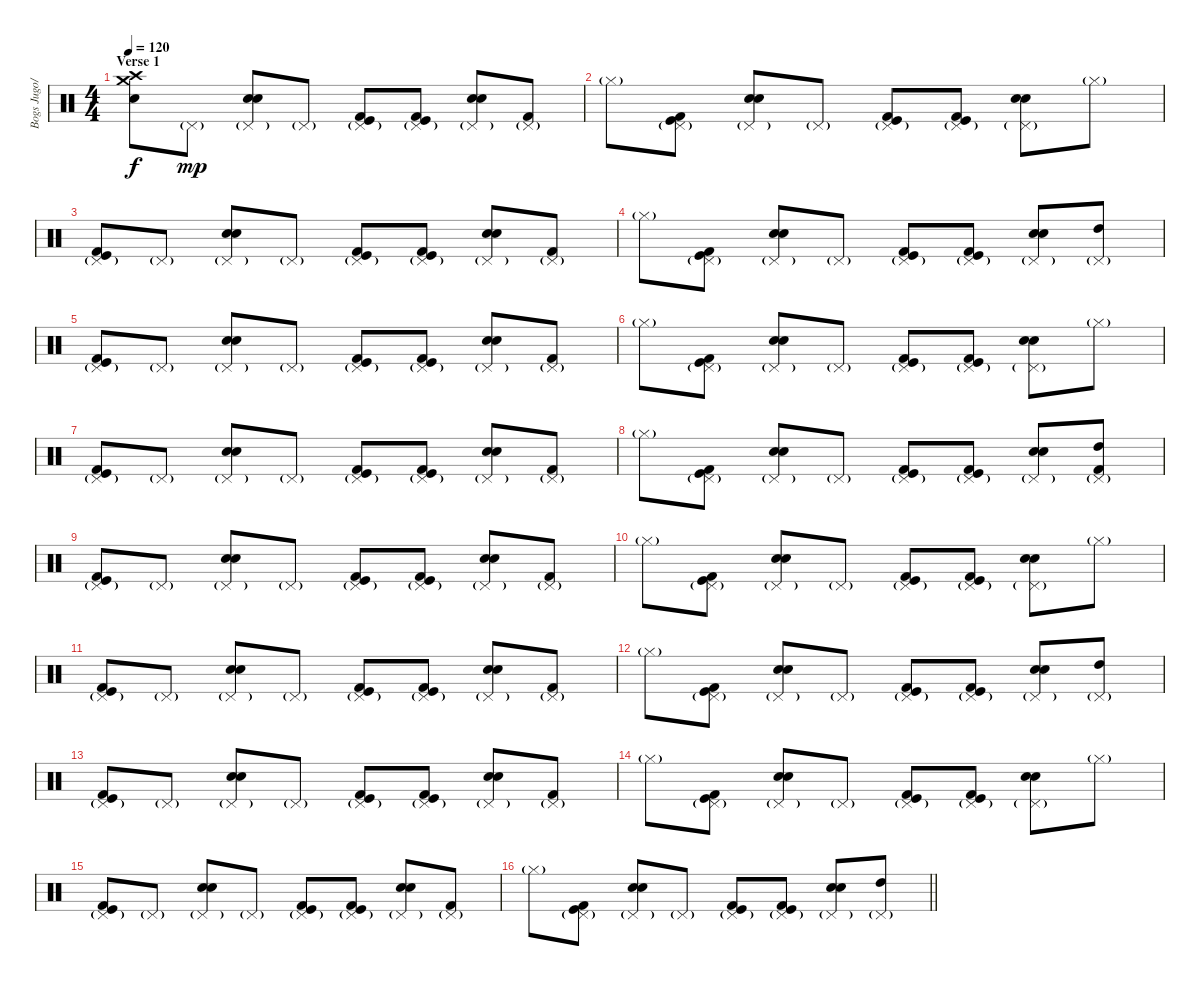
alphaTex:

\track ("Bogs Jugo/Drums" "Bogs Jugo/") {instrument percussion}
\staff {score}
\articulation defaults
\ts (4 4)
\section ("" "Verse 1")
\tempo 120
\clef neutral
\ks c
("Crash medium (hit)" "Crash high (hit)" "Electric Snare (hit)").8{dy f} "Pedal Hi-Hat (hit)"{g}.8{dy mp} ("Pedal Hi-Hat (hit)"{g} "Electric Snare (hit)" "Snare (hit) 2").8 "Pedal Hi-Hat (hit)"{g}.8 ("Pedal Hi-Hat (hit)"{g} "Kick (hit) 2" "Kick (hit)").8 ("Pedal Hi-Hat (hit)"{g} "Kick (hit) 2" "Kick (hit)").8 ("Pedal Hi-Hat (hit)"{g} "Electric Snare (hit)" "Snare (hit) 2").8 ("Pedal Hi-Hat (hit)"{g} "Kick (hit) 2").8 |
"Hi-Hat (closed)"{g}.8 ("Pedal Hi-Hat (hit)"{g} "Kick (hit) 2" "Kick (hit)").8 ("Pedal Hi-Hat (hit)"{g} "Electric Snare (hit)" "Snare (hit) 2").8 "Pedal Hi-Hat (hit)"{g}.8 ("Pedal Hi-Hat (hit)"{g} "Kick (hit) 2" "Kick (hit)").8 ("Pedal Hi-Hat (hit)"{g} "Kick (hit) 2" "Kick (hit)").8 ("Pedal Hi-Hat (hit)"{g} "Electric Snare (hit)" "Snare (hit) 2").8 "Hi-Hat (closed)"{g}.8 |
("Pedal Hi-Hat (hit)"{g} "Kick (hit) 2" "Kick (hit)").8 "Pedal Hi-Hat (hit)"{g}.8 ("Pedal Hi-Hat (hit)"{g} "Electric Snare (hit)" "Snare (hit) 2").8 "Pedal Hi-Hat (hit)"{g}.8 ("Pedal Hi-Hat (hit)"{g} "Kick (hit) 2" "Kick (hit)").8 ("Pedal Hi-Hat (hit)"{g} "Kick (hit) 2" "Kick (hit)").8 ("Pedal Hi-Hat (hit)"{g} "Electric Snare (hit)" "Snare (hit) 2").8 ("Pedal Hi-Hat (hit)"{g} "Kick (hit) 2").8 |
"Hi-Hat (closed)"{g}.8 ("Pedal Hi-Hat (hit)"{g} "Kick (hit) 2" "Kick (hit)").8 ("Pedal Hi-Hat (hit)"{g} "Electric Snare (hit)" "Snare (hit) 2").8 "Pedal Hi-Hat (hit)"{g}.8 ("Pedal Hi-Hat (hit)"{g} "Kick (hit) 2" "Kick (hit)").8 ("Pedal Hi-Hat (hit)"{g} "Kick (hit) 2" "Kick (hit)").8 ("Pedal Hi-Hat (hit)"{g} "Electric Snare (hit)" "Snare (hit) 2").8 ("Pedal Hi-Hat (hit)"{g} "High Tom (hit)").8 |
("Pedal Hi-Hat (hit)"{g} "Kick (hit) 2" "Kick (hit)").8 "Pedal Hi-Hat (hit)"{g}.8 ("Pedal Hi-Hat (hit)"{g} "Electric Snare (hit)" "Snare (hit) 2").8 "Pedal Hi-Hat (hit)"{g}.8 ("Pedal Hi-Hat (hit)"{g} "Kick (hit) 2" "Kick (hit)").8 ("Pedal Hi-Hat (hit)"{g} "Kick (hit) 2" "Kick (hit)").8 ("Pedal Hi-Hat (hit)"{g} "Electric Snare (hit)" "Snare (hit) 2").8 ("Pedal Hi-Hat (hit)"{g} "Kick (hit) 2").8 |
"Hi-Hat (closed)"{g}.8 ("Pedal Hi-Hat (hit)"{g} "Kick (hit) 2" "Kick (hit)").8 ("Pedal Hi-Hat (hit)"{g} "Electric Snare (hit)" "Snare (hit) 2").8 "Pedal Hi-Hat (hit)"{g}.8 ("Pedal Hi-Hat (hit)"{g} "Kick (hit) 2" "Kick (hit)").8 ("Pedal Hi-Hat (hit)"{g} "Kick (hit) 2" "Kick (hit)").8 ("Pedal Hi-Hat (hit)"{g} "Electric Snare (hit)" "Snare (hit) 2").8 "Hi-Hat (closed)"{g}.8 |
("Pedal Hi-Hat (hit)"{g} "Kick (hit) 2" "Kick (hit)").8 "Pedal Hi-Hat (hit)"{g}.8 ("Pedal Hi-Hat (hit)"{g} "Electric Snare (hit)" "Snare (hit) 2").8 "Pedal Hi-Hat (hit)"{g}.8 ("Pedal Hi-Hat (hit)"{g} "Kick (hit) 2" "Kick (hit)").8 ("Pedal Hi-Hat (hit)"{g} "Kick (hit) 2" "Kick (hit)").8 ("Pedal Hi-Hat (hit)"{g} "Electric Snare (hit)" "Snare (hit) 2").8 ("Pedal Hi-Hat (hit)"{g} "Kick (hit) 2").8 |
"Hi-Hat (closed)"{g}.8 ("Pedal Hi-Hat (hit)"{g} "Kick (hit) 2" "Kick (hit)").8 ("Pedal Hi-Hat (hit)"{g} "Electric Snare (hit)" "Snare (hit) 2").8 "Pedal Hi-Hat (hit)"{g}.8 ("Pedal Hi-Hat (hit)"{g} "Kick (hit) 2" "Kick (hit)").8 ("Pedal Hi-Hat (hit)"{g} "Kick (hit) 2" "Kick (hit)").8 ("Pedal Hi-Hat (hit)"{g} "Electric Snare (hit)" "Snare (hit) 2").8 ("Pedal Hi-Hat (hit)"{g} "High Tom (hit)" "Kick (hit) 2").8 |
("Pedal Hi-Hat (hit)"{g} "Kick (hit) 2" "Kick (hit)").8 "Pedal Hi-Hat (hit)"{g}.8 ("Pedal Hi-Hat (hit)"{g} "Electric Snare (hit)" "Snare (hit) 2").8 "Pedal Hi-Hat (hit)"{g}.8 ("Pedal Hi-Hat (hit)"{g} "Kick (hit) 2" "Kick (hit)").8 ("Pedal Hi-Hat (hit)"{g} "Kick (hit) 2" "Kick (hit)").8 ("Pedal Hi-Hat (hit)"{g} "Electric Snare (hit)" "Snare (hit) 2").8 ("Pedal Hi-Hat (hit)"{g} "Kick (hit) 2").8 |
"Hi-Hat (closed)"{g}.8 ("Pedal Hi-Hat (hit)"{g} "Kick (hit) 2" "Kick (hit)").8 ("Pedal Hi-Hat (hit)"{g} "Electric Snare (hit)" "Snare (hit) 2").8 "Pedal Hi-Hat (hit)"{g}.8 ("Pedal Hi-Hat (hit)"{g} "Kick (hit) 2" "Kick (hit)").8 ("Pedal Hi-Hat (hit)"{g} "Kick (hit) 2" "Kick (hit)").8 ("Pedal Hi-Hat (hit)"{g} "Electric Snare (hit)" "Snare (hit) 2").8 "Hi-Hat (closed)"{g}.8 |
("Pedal Hi-Hat (hit)"{g} "Kick (hit) 2" "Kick (hit)").8 "Pedal Hi-Hat (hit)"{g}.8 ("Pedal Hi-Hat (hit)"{g} "Electric Snare (hit)" "Snare (hit) 2").8 "Pedal Hi-Hat (hit)"{g}.8 ("Pedal Hi-Hat (hit)"{g} "Kick (hit) 2" "Kick (hit)").8 ("Pedal Hi-Hat (hit)"{g} "Kick (hit) 2" "Kick (hit)").8 ("Pedal Hi-Hat (hit)"{g} "Electric Snare (hit)" "Snare (hit) 2").8 ("Pedal Hi-Hat (hit)"{g} "Kick (hit) 2").8 |
"Hi-Hat (closed)"{g}.8 ("Pedal Hi-Hat (hit)"{g} "Kick (hit) 2" "Kick (hit)").8 ("Pedal Hi-Hat (hit)"{g} "Electric Snare (hit)" "Snare (hit) 2").8 "Pedal Hi-Hat (hit)"{g}.8 ("Pedal Hi-Hat (hit)"{g} "Kick (hit) 2" "Kick (hit)").8 ("Pedal Hi-Hat (hit)"{g} "Kick (hit) 2" "Kick (hit)").8 ("Pedal Hi-Hat (hit)"{g} "Electric Snare (hit)" "Snare (hit) 2").8 ("Pedal Hi-Hat (hit)"{g} "High Tom (hit)").8 |
("Pedal Hi-Hat (hit)"{g} "Kick (hit) 2" "Kick (hit)").8 "Pedal Hi-Hat (hit)"{g}.8 ("Pedal Hi-Hat (hit)"{g} "Electric Snare (hit)" "Snare (hit) 2").8 "Pedal Hi-Hat (hit)"{g}.8 ("Pedal Hi-Hat (hit)"{g} "Kick (hit) 2" "Kick (hit)").8 ("Pedal Hi-Hat (hit)"{g} "Kick (hit) 2" "Kick (hit)").8 ("Pedal Hi-Hat (hit)"{g} "Electric Snare (hit)" "Snare (hit) 2").8 ("Pedal Hi-Hat (hit)"{g} "Kick (hit) 2").8 |
"Hi-Hat (closed)"{g}.8 ("Pedal Hi-Hat (hit)"{g} "Kick (hit) 2" "Kick (hit)").8 ("Pedal Hi-Hat (hit)"{g} "Electric Snare (hit)" "Snare (hit) 2").8 "Pedal Hi-Hat (hit)"{g}.8 ("Pedal Hi-Hat (hit)"{g} "Kick (hit) 2" "Kick (hit)").8 ("Pedal Hi-Hat (hit)"{g} "Kick (hit) 2" "Kick (hit)").8 ("Pedal Hi-Hat (hit)"{g} "Electric Snare (hit)" "Snare (hit) 2").8 "Hi-Hat (closed)"{g}.8 |
("Pedal Hi-Hat (hit)"{g} "Kick (hit) 2" "Kick (hit)").8 "Pedal Hi-Hat (hit)"{g}.8 ("Pedal Hi-Hat (hit)"{g} "Electric Snare (hit)" "Snare (hit) 2").8 "Pedal Hi-Hat (hit)"{g}.8 ("Pedal Hi-Hat (hit)"{g} "Kick (hit) 2" "Kick (hit)").8 ("Pedal Hi-Hat (hit)"{g} "Kick (hit) 2" "Kick (hit)").8 ("Pedal Hi-Hat (hit)"{g} "Electric Snare (hit)" "Snare (hit) 2").8 ("Pedal Hi-Hat (hit)"{g} "Kick (hit) 2").8 |
\barLineRight lightlight "Hi-Hat (closed)"{g}.8
("Pedal Hi-Hat (hit)"{g} "Kick (hit) 2" "Kick (hit)").8 ("Pedal Hi-Hat (hit)"{g} "Electric Snare (hit)" "Snare (hit) 2").8 "Pedal Hi-Hat (hit)"{g}.8 ("Pedal Hi-Hat (hit)"{g} "Kick (hit) 2" "Kick (hit)").8 ("Pedal Hi-Hat (hit)"{g} "Kick (hit) 2" "Kick (hit)").8 ("Pedal Hi-Hat (hit)"{g} "Electric Snare (hit)" "Snare (hit) 2").8 ("Pedal Hi-Hat (hit)"{g} "High Tom (hit)").8
